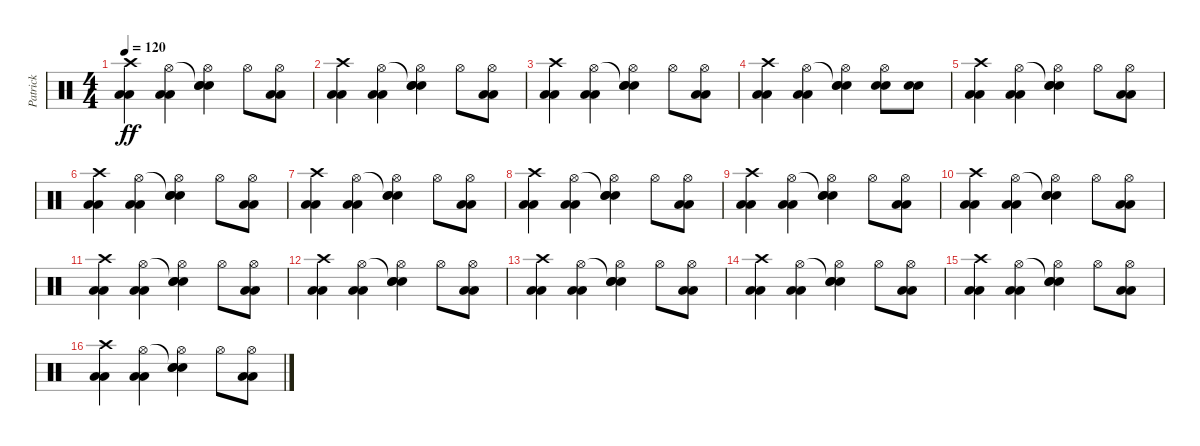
\track ("Patrick" "Patrick") {instrument percussion}
\staff {score}
\articulation defaults
\ts (4 4)
\tempo 120
\clef neutral
\ks c
("Crash high (hit)" "Low Floor Tom (hit)" "Low Floor Tom (hit)").4{dy ff} ("Hi-Hat (open)" "Low Floor Tom (hit)" "Low Floor Tom (hit)").4 ("Snare (hit)"{t} "Hi-Hat (open)" "Electric Snare (hit)" "Electric Snare (hit)").4 "Hi-Hat (open)".8 ("Hi-Hat (open)" "Low Floor Tom (hit)" "Low Floor Tom (hit)").8 |
("Crash high (hit)" "Low Floor Tom (hit)" "Low Floor Tom (hit)").4 ("Hi-Hat (open)" "Low Floor Tom (hit)" "Low Floor Tom (hit)").4 ("Snare (hit)"{t} "Hi-Hat (open)" "Electric Snare (hit)" "Electric Snare (hit)").4 "Hi-Hat (open)".8 ("Hi-Hat (open)" "Low Floor Tom (hit)" "Low Floor Tom (hit)").8 |
("Crash high (hit)" "Low Floor Tom (hit)" "Low Floor Tom (hit)").4 ("Hi-Hat (open)" "Low Floor Tom (hit)" "Low Floor Tom (hit)").4 ("Snare (hit)"{t} "Hi-Hat (open)" "Electric Snare (hit)" "Electric Snare (hit)").4 "Hi-Hat (open)".8 ("Hi-Hat (open)" "Low Floor Tom (hit)" "Low Floor Tom (hit)").8 |
("Crash high (hit)" "Low Floor Tom (hit)" "Low Floor Tom (hit)").4 ("Hi-Hat (open)" "Low Floor Tom (hit)" "Low Floor Tom (hit)").4 ("Snare (hit)"{t} "Hi-Hat (open)" "Electric Snare (hit)" "Electric Snare (hit)").4 ("Hi-Hat (open)" "Electric Snare (hit)" "Electric Snare (hit)").8 ("Electric Snare (hit)" "Electric Snare (hit)").8 |
("Crash high (hit)" "Low Floor Tom (hit)" "Low Floor Tom (hit)").4 ("Hi-Hat (open)" "Low Floor Tom (hit)" "Low Floor Tom (hit)").4 ("Snare (hit)"{t} "Hi-Hat (open)" "Electric Snare (hit)" "Electric Snare (hit)").4 "Hi-Hat (open)".8 ("Hi-Hat (open)" "Low Floor Tom (hit)" "Low Floor Tom (hit)").8 |
("Crash high (hit)" "Low Floor Tom (hit)" "Low Floor Tom (hit)").4 ("Hi-Hat (open)" "Low Floor Tom (hit)" "Low Floor Tom (hit)").4 ("Snare (hit)"{t} "Hi-Hat (open)" "Electric Snare (hit)" "Electric Snare (hit)").4 "Hi-Hat (open)".8 ("Hi-Hat (open)" "Low Floor Tom (hit)" "Low Floor Tom (hit)").8 |
("Crash high (hit)" "Low Floor Tom (hit)" "Low Floor Tom (hit)").4 ("Hi-Hat (open)" "Low Floor Tom (hit)" "Low Floor Tom (hit)").4 ("Snare (hit)"{t} "Hi-Hat (open)" "Electric Snare (hit)" "Electric Snare (hit)").4 "Hi-Hat (open)".8 ("Hi-Hat (open)" "Low Floor Tom (hit)" "Low Floor Tom (hit)").8 |
("Crash high (hit)" "Low Floor Tom (hit)" "Low Floor Tom (hit)").4 ("Hi-Hat (open)" "Low Floor Tom (hit)" "Low Floor Tom (hit)").4 ("Snare (hit)"{t} "Hi-Hat (open)" "Electric Snare (hit)" "Electric Snare (hit)").4 "Hi-Hat (open)".8 ("Hi-Hat (open)" "Low Floor Tom (hit)" "Low Floor Tom (hit)").8 |
("Crash high (hit)" "Low Floor Tom (hit)" "Low Floor Tom (hit)").4 ("Hi-Hat (open)" "Low Floor Tom (hit)" "Low Floor Tom (hit)").4 ("Snare (hit)"{t} "Hi-Hat (open)" "Electric Snare (hit)" "Electric Snare (hit)").4 "Hi-Hat (open)".8 ("Hi-Hat (open)" "Low Floor Tom (hit)" "Low Floor Tom (hit)").8 |
("Crash high (hit)" "Low Floor Tom (hit)" "Low Floor Tom (hit)").4 ("Hi-Hat (open)" "Low Floor Tom (hit)" "Low Floor Tom (hit)").4 ("Snare (hit)"{t} "Hi-Hat (open)" "Electric Snare (hit)" "Electric Snare (hit)").4 "Hi-Hat (open)".8 ("Hi-Hat (open)" "Low Floor Tom (hit)" "Low Floor Tom (hit)").8 |
("Crash high (hit)" "Low Floor Tom (hit)" "Low Floor Tom (hit)").4 ("Hi-Hat (open)" "Low Floor Tom (hit)" "Low Floor Tom (hit)").4 ("Snare (hit)"{t} "Hi-Hat (open)" "Electric Snare (hit)" "Electric Snare (hit)").4 "Hi-Hat (open)".8 ("Hi-Hat (open)" "Low Floor Tom (hit)" "Low Floor Tom (hit)").8 |
("Crash high (hit)" "Low Floor Tom (hit)" "Low Floor Tom (hit)").4 ("Hi-Hat (open)" "Low Floor Tom (hit)" "Low Floor Tom (hit)").4 ("Snare (hit)"{t} "Hi-Hat (open)" "Electric Snare (hit)" "Electric Snare (hit)").4 "Hi-Hat (open)".8 ("Hi-Hat (open)" "Low Floor Tom (hit)" "Low Floor Tom (hit)").8 |
("Crash high (hit)" "Low Floor Tom (hit)" "Low Floor Tom (hit)").4 ("Hi-Hat (open)" "Low Floor Tom (hit)" "Low Floor Tom (hit)").4 ("Snare (hit)"{t} "Hi-Hat (open)" "Electric Snare (hit)" "Electric Snare (hit)").4 "Hi-Hat (open)".8 ("Hi-Hat (open)" "Low Floor Tom (hit)" "Low Floor Tom (hit)").8 |
("Crash high (hit)" "Low Floor Tom (hit)" "Low Floor Tom (hit)").4 ("Hi-Hat (open)" "Low Floor Tom (hit)" "Low Floor Tom (hit)").4 ("Snare (hit)"{t} "Hi-Hat (open)" "Electric Snare (hit)" "Electric Snare (hit)").4 "Hi-Hat (open)".8 ("Hi-Hat (open)" "Low Floor Tom (hit)" "Low Floor Tom (hit)").8 |
("Crash high (hit)" "Low Floor Tom (hit)" "Low Floor Tom (hit)").4 ("Hi-Hat (open)" "Low Floor Tom (hit)" "Low Floor Tom (hit)").4 ("Snare (hit)"{t} "Hi-Hat (open)" "Electric Snare (hit)" "Electric Snare (hit)").4 "Hi-Hat (open)".8 ("Hi-Hat (open)" "Low Floor Tom (hit)" "Low Floor Tom (hit)").8 |
("Crash high (hit)" "Low Floor Tom (hit)" "Low Floor Tom (hit)").4 ("Hi-Hat (open)" "Low Floor Tom (hit)" "Low Floor Tom (hit)").4 ("Snare (hit)"{t} "Hi-Hat (open)" "Electric Snare (hit)" "Electric Snare (hit)").4 "Hi-Hat (open)".8 ("Hi-Hat (open)" "Low Floor Tom (hit)" "Low Floor Tom (hit)").8
